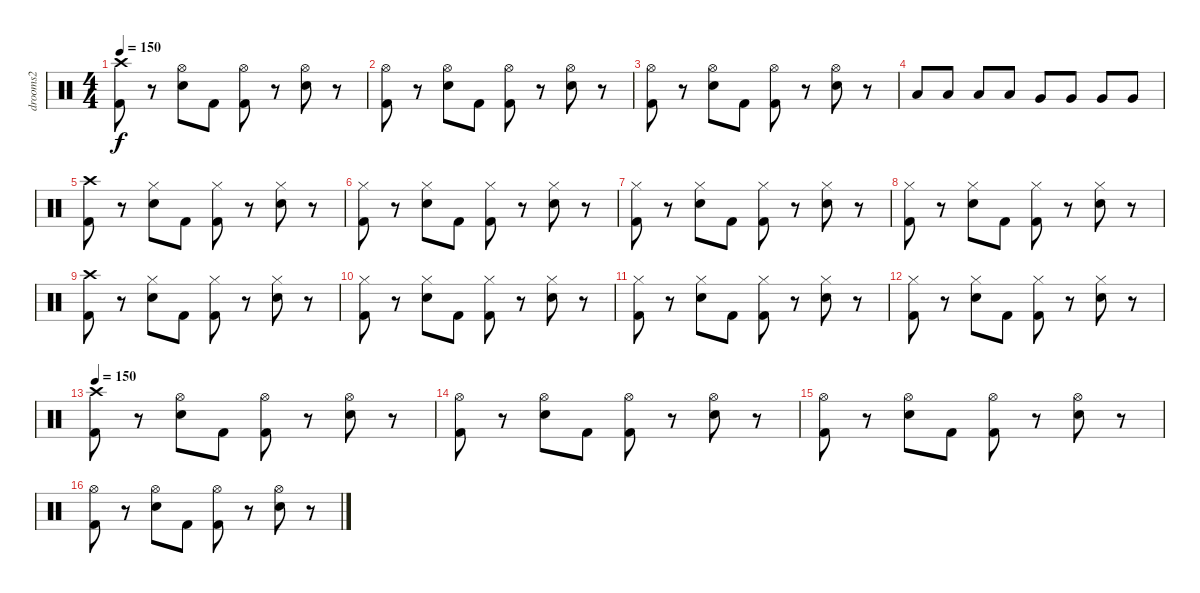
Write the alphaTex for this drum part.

\track ("drooms2" "drooms2") {instrument percussion}
\staff {score}
\articulation defaults
\ts (4 4)
\tempo 150
\clef neutral
\ks c
("Kick (hit) 2" "Crash high (hit)").8{dy f} r.8 ("Hi-Hat (open)" "Snare (hit) 2").8 "Kick (hit) 2".8 ("Hi-Hat (open)" "Kick (hit) 2").8 r.8 ("Hi-Hat (open)" "Snare (hit) 2").8 r.8 |
("Kick (hit) 2" "Hi-Hat (open)").8 r.8 ("Snare (hit) 2" "Hi-Hat (open)").8 "Kick (hit) 2".8 ("Kick (hit) 2" "Hi-Hat (open)").8 r.8 ("Snare (hit) 2" "Hi-Hat (open)").8 r.8 |
("Kick (hit) 2" "Hi-Hat (open)").8 r.8 ("Snare (hit) 2" "Hi-Hat (open)").8 "Kick (hit) 2".8 ("Kick (hit) 2" "Hi-Hat (open)").8 r.8 ("Snare (hit) 2" "Hi-Hat (open)").8 r.8 |
"Low Tom (hit)".8 "Low Tom (hit)".8 "Low Tom (hit)".8 "Low Tom (hit)".8 "Very Low Tom (hit)".8 "Very Low Tom (hit)".8 "Very Low Tom (hit)".8 "Very Low Tom (hit)".8 |
("Kick (hit) 2" "Crash high (hit)").8 r.8 ("Hi-Hat (closed)" "Snare (hit) 2").8 "Kick (hit) 2".8 ("Hi-Hat (closed)" "Kick (hit) 2").8 r.8 ("Hi-Hat (closed)" "Snare (hit) 2").8 r.8 |
("Kick (hit) 2" "Hi-Hat (closed)").8 r.8 ("Snare (hit) 2" "Hi-Hat (closed)").8 "Kick (hit) 2".8 ("Kick (hit) 2" "Hi-Hat (closed)").8 r.8 ("Snare (hit) 2" "Hi-Hat (closed)").8 r.8 |
("Kick (hit) 2" "Hi-Hat (closed)").8 r.8 ("Snare (hit) 2" "Hi-Hat (closed)").8 "Kick (hit) 2".8 ("Kick (hit) 2" "Hi-Hat (closed)").8 r.8 ("Snare (hit) 2" "Hi-Hat (closed)").8 r.8 |
("Kick (hit) 2" "Hi-Hat (closed)").8 r.8 ("Snare (hit) 2" "Hi-Hat (closed)").8 "Kick (hit) 2".8 ("Kick (hit) 2" "Hi-Hat (closed)").8 r.8 ("Snare (hit) 2" "Hi-Hat (closed)").8 r.8 |
("Kick (hit) 2" "Crash high (hit)").8 r.8 ("Hi-Hat (closed)" "Snare (hit) 2").8 "Kick (hit) 2".8 ("Hi-Hat (closed)" "Kick (hit) 2").8 r.8 ("Hi-Hat (closed)" "Snare (hit) 2").8 r.8 |
("Kick (hit) 2" "Hi-Hat (closed)").8 r.8 ("Snare (hit) 2" "Hi-Hat (closed)").8 "Kick (hit) 2".8 ("Kick (hit) 2" "Hi-Hat (closed)").8 r.8 ("Snare (hit) 2" "Hi-Hat (closed)").8 r.8 |
("Kick (hit) 2" "Hi-Hat (closed)").8 r.8 ("Snare (hit) 2" "Hi-Hat (closed)").8 "Kick (hit) 2".8 ("Kick (hit) 2" "Hi-Hat (closed)").8 r.8 ("Snare (hit) 2" "Hi-Hat (closed)").8 r.8 |
("Kick (hit) 2" "Hi-Hat (closed)").8 r.8 ("Snare (hit) 2" "Hi-Hat (closed)").8 "Kick (hit) 2".8 ("Kick (hit) 2" "Hi-Hat (closed)").8 r.8 ("Snare (hit) 2" "Hi-Hat (closed)").8 r.8 |
\tempo 150
("Kick (hit) 2" "Crash high (hit)").8 r.8 ("Hi-Hat (open)" "Snare (hit) 2").8 "Kick (hit) 2".8 ("Hi-Hat (open)" "Kick (hit) 2").8 r.8 ("Hi-Hat (open)" "Snare (hit) 2").8 r.8 |
("Kick (hit) 2" "Hi-Hat (open)").8 r.8 ("Snare (hit) 2" "Hi-Hat (open)").8 "Kick (hit) 2".8 ("Kick (hit) 2" "Hi-Hat (open)").8 r.8 ("Snare (hit) 2" "Hi-Hat (open)").8 r.8 |
("Kick (hit) 2" "Hi-Hat (open)").8 r.8 ("Snare (hit) 2" "Hi-Hat (open)").8 "Kick (hit) 2".8 ("Kick (hit) 2" "Hi-Hat (open)").8 r.8 ("Snare (hit) 2" "Hi-Hat (open)").8 r.8 |
("Kick (hit) 2" "Hi-Hat (open)").8 r.8 ("Snare (hit) 2" "Hi-Hat (open)").8 "Kick (hit) 2".8 ("Kick (hit) 2" "Hi-Hat (open)").8 r.8 ("Snare (hit) 2" "Hi-Hat (open)").8 r.8
